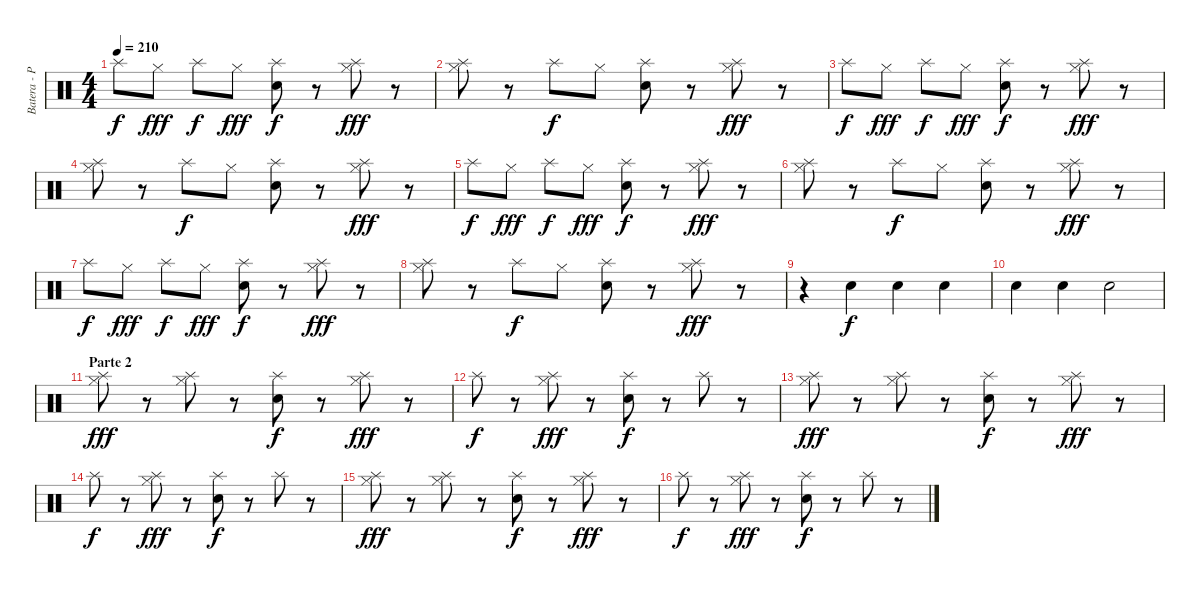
\track ("Batera - Pelado" "Batera - P") {instrument percussion}
\staff {score}
\articulation defaults
\ts (4 4)
\tempo 210
\clef neutral
\ks c "Splash (hit)".8{dy f} "Hi-Hat (closed)".8{dy fff} "Splash (hit)".8{dy f} "Hi-Hat (closed)".8{dy fff}
("Splash (hit)" "Electric Snare (hit)").8{dy f} r.8 ("Splash (hit)" "Hi-Hat (closed)").8{dy fff} r.8 |
("Splash (hit)" "Hi-Hat (closed)").8 r.8 "Splash (hit)".8{dy f} "Hi-Hat (closed)".8 ("Splash (hit)" "Electric Snare (hit)").8 r.8 ("Splash (hit)" "Hi-Hat (closed)").8{dy fff} r.8 |
"Splash (hit)".8{dy f} "Hi-Hat (closed)".8{dy fff} "Splash (hit)".8{dy f} "Hi-Hat (closed)".8{dy fff} ("Splash (hit)" "Electric Snare (hit)").8{dy f} r.8 ("Splash (hit)" "Hi-Hat (closed)").8{dy fff} r.8 |
("Splash (hit)" "Hi-Hat (closed)").8 r.8 "Splash (hit)".8{dy f} "Hi-Hat (closed)".8 ("Splash (hit)" "Electric Snare (hit)").8 r.8 ("Splash (hit)" "Hi-Hat (closed)").8{dy fff} r.8 |
"Splash (hit)".8{dy f} "Hi-Hat (closed)".8{dy fff} "Splash (hit)".8{dy f} "Hi-Hat (closed)".8{dy fff} ("Splash (hit)" "Electric Snare (hit)").8{dy f} r.8 ("Splash (hit)" "Hi-Hat (closed)").8{dy fff} r.8 |
("Splash (hit)" "Hi-Hat (closed)").8 r.8 "Splash (hit)".8{dy f} "Hi-Hat (closed)".8 ("Splash (hit)" "Electric Snare (hit)").8 r.8 ("Splash (hit)" "Hi-Hat (closed)").8{dy fff} r.8 |
"Splash (hit)".8{dy f} "Hi-Hat (closed)".8{dy fff} "Splash (hit)".8{dy f} "Hi-Hat (closed)".8{dy fff} ("Splash (hit)" "Electric Snare (hit)").8{dy f} r.8 ("Splash (hit)" "Hi-Hat (closed)").8{dy fff} r.8 |
("Splash (hit)" "Hi-Hat (closed)").8 r.8 "Splash (hit)".8{dy f} "Hi-Hat (closed)".8 ("Splash (hit)" "Electric Snare (hit)").8 r.8 ("Splash (hit)" "Hi-Hat (closed)").8{dy fff} r.8 |
r.4 "Electric Snare (hit)".4{dy f} "Electric Snare (hit)".4 "Electric Snare (hit)".4 |
"Electric Snare (hit)".4 "Electric Snare (hit)".4 "Electric Snare (hit)".2 |
\section ("" "Parte 2")
("Splash (hit)" "Hi-Hat (closed)").8{dy fff} r.8 ("Splash (hit)" "Hi-Hat (closed)").8 r.8 ("Splash (hit)" "Electric Snare (hit)").8{dy f} r.8 ("Splash (hit)" "Hi-Hat (closed)").8{dy fff} r.8 |
"Splash (hit)".8{dy f} r.8 ("Splash (hit)" "Hi-Hat (closed)").8{dy fff} r.8 ("Splash (hit)" "Electric Snare (hit)").8{dy f} r.8 "Splash (hit)".8 r.8 |
("Splash (hit)" "Hi-Hat (closed)").8{dy fff} r.8 ("Splash (hit)" "Hi-Hat (closed)").8 r.8 ("Splash (hit)" "Electric Snare (hit)").8{dy f} r.8 ("Splash (hit)" "Hi-Hat (closed)").8{dy fff} r.8 |
"Splash (hit)".8{dy f} r.8 ("Splash (hit)" "Hi-Hat (closed)").8{dy fff} r.8 ("Splash (hit)" "Electric Snare (hit)").8{dy f} r.8 "Splash (hit)".8 r.8 |
("Splash (hit)" "Hi-Hat (closed)").8{dy fff} r.8 ("Splash (hit)" "Hi-Hat (closed)").8 r.8 ("Splash (hit)" "Electric Snare (hit)").8{dy f} r.8 ("Splash (hit)" "Hi-Hat (closed)").8{dy fff} r.8 |
"Splash (hit)".8{dy f} r.8 ("Splash (hit)" "Hi-Hat (closed)").8{dy fff} r.8 ("Splash (hit)" "Electric Snare (hit)").8{dy f} r.8 "Splash (hit)".8 r.8
